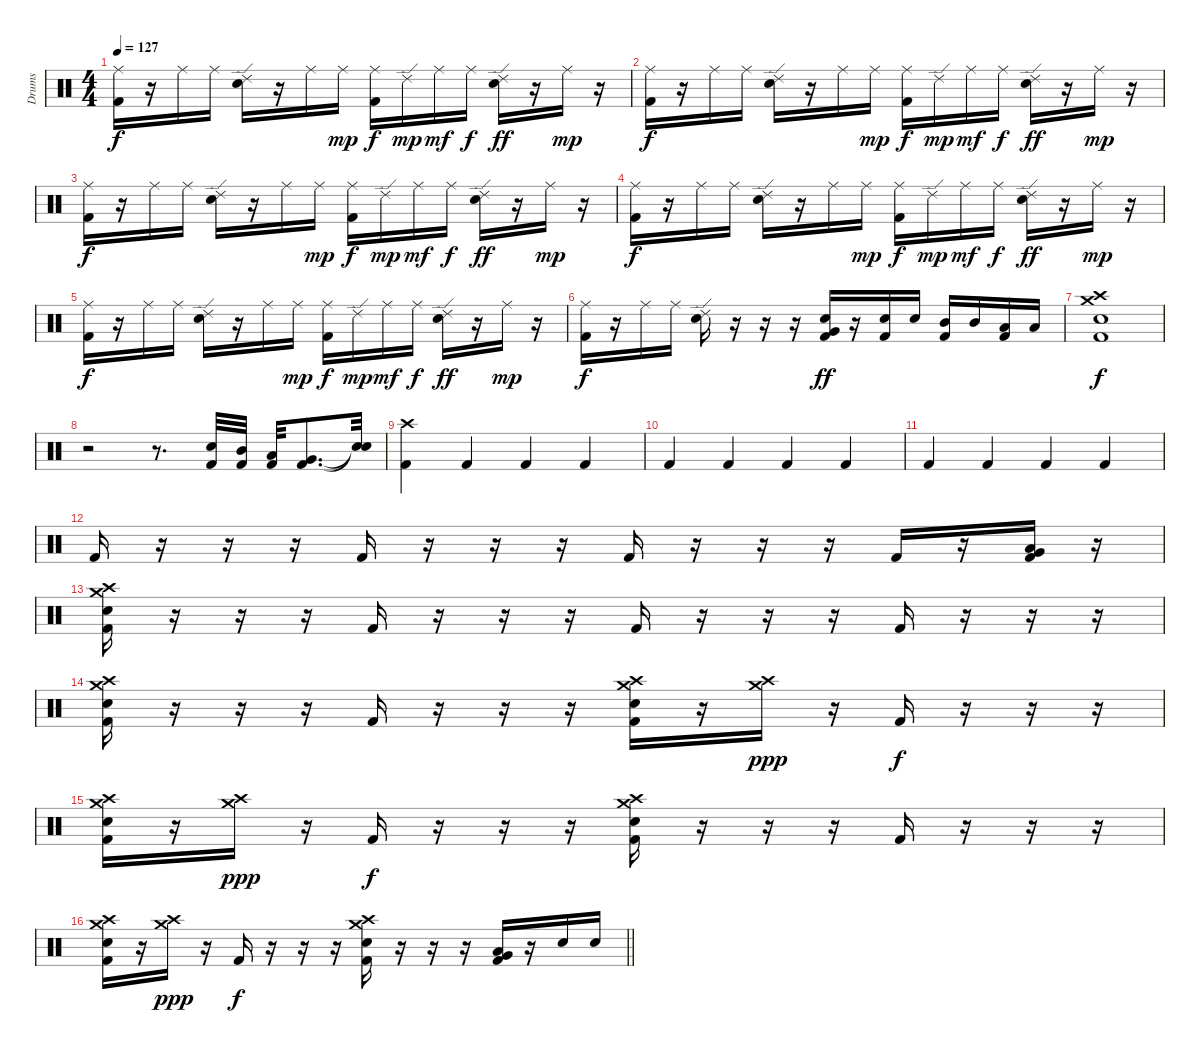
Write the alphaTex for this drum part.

\track ("Drums" "Drums") {instrument percussion}
\staff {score}
\articulation defaults
\ts (4 4)
\tempo 127
\clef neutral
\ks c
("Ride (middle)" "Kick (hit) 2").16{dy f} r.16 "Ride (middle)".16 "Ride (middle)".16 ("Ride (edge) 2" "Snare (hit) 2").16 r.16 "Ride (middle)".16 "Ride (middle)".16{dy mp} ("Ride (middle)" "Kick (hit) 2").16{dy f} "Ride (edge) 2".16{dy mp} "Ride (middle)".16{dy mf} "Ride (middle)".16{dy f} ("Ride (edge) 2" "Snare (hit) 2").16{dy ff} r.16 "Ride (middle)".16{dy mp} r.16 |
("Ride (middle)" "Kick (hit) 2").16{dy f} r.16 "Ride (middle)".16 "Ride (middle)".16 ("Ride (edge) 2" "Snare (hit) 2").16 r.16 "Ride (middle)".16 "Ride (middle)".16{dy mp} ("Ride (middle)" "Kick (hit) 2").16{dy f} "Ride (edge) 2".16{dy mp} "Ride (middle)".16{dy mf} "Ride (middle)".16{dy f} ("Ride (edge) 2" "Snare (hit) 2").16{dy ff} r.16 "Ride (middle)".16{dy mp} r.16 |
("Ride (middle)" "Kick (hit) 2").16{dy f} r.16 "Ride (middle)".16 "Ride (middle)".16 ("Ride (edge) 2" "Snare (hit) 2").16 r.16 "Ride (middle)".16 "Ride (middle)".16{dy mp} ("Ride (middle)" "Kick (hit) 2").16{dy f} "Ride (edge) 2".16{dy mp} "Ride (middle)".16{dy mf} "Ride (middle)".16{dy f} ("Ride (edge) 2" "Snare (hit) 2").16{dy ff} r.16 "Ride (middle)".16{dy mp} r.16 |
("Ride (middle)" "Kick (hit) 2").16{dy f} r.16 "Ride (middle)".16 "Ride (middle)".16 ("Ride (edge) 2" "Snare (hit) 2").16 r.16 "Ride (middle)".16 "Ride (middle)".16{dy mp} ("Ride (middle)" "Kick (hit) 2").16{dy f} "Ride (edge) 2".16{dy mp} "Ride (middle)".16{dy mf} "Ride (middle)".16{dy f} ("Ride (edge) 2" "Snare (hit) 2").16{dy ff} r.16 "Ride (middle)".16{dy mp} r.16 |
("Ride (middle)" "Kick (hit) 2").16{dy f} r.16 "Ride (middle)".16 "Ride (middle)".16 ("Ride (edge) 2" "Snare (hit) 2").16 r.16 "Ride (middle)".16 "Ride (middle)".16{dy mp} ("Ride (middle)" "Kick (hit) 2").16{dy f} "Ride (edge) 2".16{dy mp} "Ride (middle)".16{dy mf} "Ride (middle)".16{dy f} ("Ride (edge) 2" "Snare (hit) 2").16{dy ff} r.16 "Ride (middle)".16{dy mp} r.16 |
("Ride (middle)" "Kick (hit) 2").16{dy f} r.16 "Ride (middle)".16 "Ride (middle)".16 ("Ride (edge) 2" "Snare (hit) 2").16 r.16 r.16 r.16 ("Snare (hit) 2" "Very Low Tom (hit)" "Kick (hit) 2").16{bu 60 dy ff} r.16 ("Snare (hit) 2" "Kick (hit) 2").16 "Snare (hit) 2".16 ("Mid Tom (hit)" "Kick (hit) 2").16 "Mid Tom (hit)".16 ("Low Tom (hit)" "Kick (hit) 2").16 "Low Tom (hit)".16 |
("Crash high (hit)" "Crash medium (hit)" "Snare (hit) 2" "Kick (hit) 2").1{dy f} |
r.2 r.8{d} ("Snare (hit) 2" "Kick (hit) 2").32 ("Mid Tom (hit)" "Kick (hit) 2").32 ("Low Tom (hit)" "Kick (hit) 2").32 ("Very Low Tom (hit)" "Kick (hit) 2").8{d} ("Snare (hit)"{t} "Snare (hit)"{t}).32 |
("Crash high (hit)" "Kick (hit) 2").4 "Kick (hit) 2".4 "Kick (hit) 2".4 "Kick (hit) 2".4 |
"Kick (hit) 2".4 "Kick (hit) 2".4 "Kick (hit) 2".4 "Kick (hit) 2".4 |
"Kick (hit) 2".4 "Kick (hit) 2".4 "Kick (hit) 2".4 "Kick (hit) 2".4 |
"Kick (hit) 2".16 r.16 r.16 r.16 "Kick (hit) 2".16 r.16 r.16 r.16 "Kick (hit) 2".16 r.16 r.16 r.16 "Kick (hit) 2".16 r.16 ("Low Tom (hit)" "Very Low Tom (hit)" "Kick (hit) 2").16 r.16 |
("Crash high (hit)" "Crash medium (hit)" "Snare (hit) 2" "Kick (hit) 2").16 r.16 r.16 r.16 "Kick (hit) 2".16 r.16 r.16 r.16 "Kick (hit) 2".16 r.16 r.16 r.16 "Kick (hit) 2".16 r.16 r.16 r.16 |
("Crash high (hit)" "Crash medium (hit)" "Snare (hit) 2" "Kick (hit) 2").16 r.16 r.16 r.16 "Kick (hit) 2".16 r.16 r.16 r.16 ("Crash high (hit)" "Crash medium (hit)" "Snare (hit) 2" "Kick (hit) 2").16 r.16 ("Crash high (hit)" "Crash medium (hit)").16{dy ppp} r.16 "Kick (hit) 2".16{dy f} r.16 r.16 r.16 |
("Crash high (hit)" "Crash medium (hit)" "Snare (hit) 2" "Kick (hit) 2").16 r.16 ("Crash high (hit)" "Crash medium (hit)").16{dy ppp} r.16 "Kick (hit) 2".16{dy f} r.16 r.16 r.16 ("Crash high (hit)" "Crash medium (hit)" "Snare (hit) 2" "Kick (hit) 2").16 r.16 r.16 r.16 "Kick (hit) 2".16 r.16 r.16 r.16 |
\barLineRight lightlight
("Crash high (hit)" "Crash medium (hit)" "Snare (hit) 2" "Kick (hit) 2").16 r.16 ("Crash high (hit)" "Crash medium (hit)").16{dy ppp} r.16 "Kick (hit) 2".16{dy f} r.16 r.16 r.16 ("Crash high (hit)" "Crash medium (hit)" "Snare (hit) 2" "Kick (hit) 2").16 r.16 r.16 r.16 ("Low Tom (hit)" "Very Low Tom (hit)" "Kick (hit) 2").16 r.16 "Snare (hit) 2".16 "Snare (hit) 2".16
